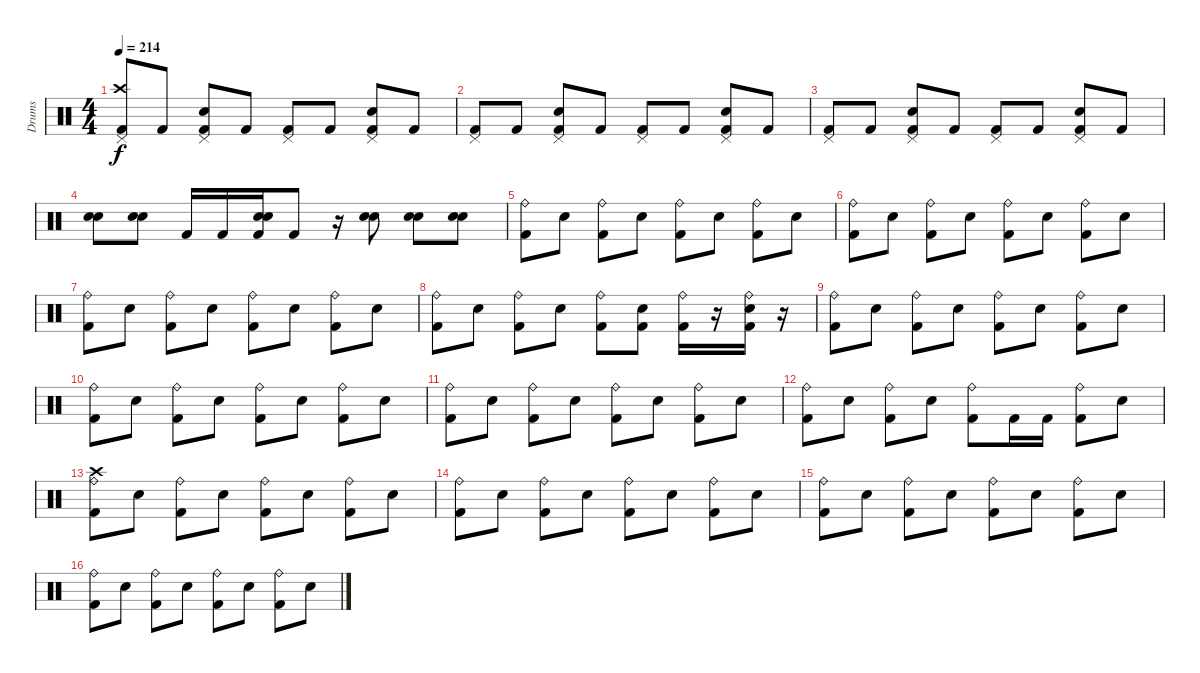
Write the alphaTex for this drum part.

\track ("Drums" "Drums") {instrument percussion}
\staff {score}
\articulation defaults
\ts (4 4)
\tempo 214
\clef neutral
\ks c
("Pedal Hi-Hat (hit)" "Crash high (hit)" "Kick (hit) 2").8{dy f} "Kick (hit) 2".8 ("Pedal Hi-Hat (hit)" "Electric Snare (hit)" "Kick (hit) 2").8 "Kick (hit) 2".8 ("Pedal Hi-Hat (hit)" "Kick (hit) 2").8 "Kick (hit) 2".8 ("Pedal Hi-Hat (hit)" "Electric Snare (hit)" "Kick (hit) 2").8 "Kick (hit) 2".8 |
("Pedal Hi-Hat (hit)" "Kick (hit) 2").8 "Kick (hit) 2".8 ("Pedal Hi-Hat (hit)" "Electric Snare (hit)" "Kick (hit) 2").8 "Kick (hit) 2".8 ("Pedal Hi-Hat (hit)" "Kick (hit) 2").8 "Kick (hit) 2".8 ("Pedal Hi-Hat (hit)" "Electric Snare (hit)" "Kick (hit) 2").8 "Kick (hit) 2".8 |
("Pedal Hi-Hat (hit)" "Kick (hit) 2").8 "Kick (hit) 2".8 ("Pedal Hi-Hat (hit)" "Electric Snare (hit)" "Kick (hit) 2").8 "Kick (hit) 2".8 ("Pedal Hi-Hat (hit)" "Kick (hit) 2").8 "Kick (hit) 2".8 ("Pedal Hi-Hat (hit)" "Electric Snare (hit)" "Kick (hit) 2").8 "Kick (hit) 2".8 |
("Electric Snare (hit)" "Electric Snare (hit)").8 ("Electric Snare (hit)" "Electric Snare (hit)").8 "Kick (hit) 2".16 "Kick (hit) 2".16 ("Electric Snare (hit)" "Electric Snare (hit)" "Kick (hit) 2").16 "Kick (hit) 2".8 r.16 ("Electric Snare (hit)" "Electric Snare (hit)").8 ("Electric Snare (hit)" "Electric Snare (hit)").8 ("Electric Snare (hit)" "Electric Snare (hit)").8 |
("Ride (bell)" "Kick (hit) 2").8 "Electric Snare (hit)".8 ("Ride (bell)" "Kick (hit) 2").8 "Electric Snare (hit)".8 ("Ride (bell)" "Kick (hit) 2").8 "Electric Snare (hit)".8 ("Ride (bell)" "Kick (hit) 2").8 "Electric Snare (hit)".8 |
("Ride (bell)" "Kick (hit) 2").8 "Electric Snare (hit)".8 ("Ride (bell)" "Kick (hit) 2").8 "Electric Snare (hit)".8 ("Ride (bell)" "Kick (hit) 2").8 "Electric Snare (hit)".8 ("Ride (bell)" "Kick (hit) 2").8 "Electric Snare (hit)".8 |
("Ride (bell)" "Kick (hit) 2").8 "Electric Snare (hit)".8 ("Ride (bell)" "Kick (hit) 2").8 "Electric Snare (hit)".8 ("Ride (bell)" "Kick (hit) 2").8 "Electric Snare (hit)".8 ("Ride (bell)" "Kick (hit) 2").8 "Electric Snare (hit)".8 |
("Ride (bell)" "Kick (hit) 2").8 "Electric Snare (hit)".8 ("Ride (bell)" "Kick (hit) 2").8 "Electric Snare (hit)".8 ("Ride (bell)" "Kick (hit) 2").8 ("Electric Snare (hit)" "Kick (hit) 2").8 ("Ride (bell)" "Kick (hit) 2").16 r.16 ("Ride (bell)" "Electric Snare (hit)" "Kick (hit) 2").16 r.16 |
("Ride (bell)" "Kick (hit) 2").8 "Electric Snare (hit)".8 ("Ride (bell)" "Kick (hit) 2").8 "Electric Snare (hit)".8 ("Ride (bell)" "Kick (hit) 2").8 "Electric Snare (hit)".8 ("Ride (bell)" "Kick (hit) 2").8 "Electric Snare (hit)".8 |
("Ride (bell)" "Kick (hit) 2").8 "Electric Snare (hit)".8 ("Ride (bell)" "Kick (hit) 2").8 "Electric Snare (hit)".8 ("Ride (bell)" "Kick (hit) 2").8 "Electric Snare (hit)".8 ("Ride (bell)" "Kick (hit) 2").8 "Electric Snare (hit)".8 |
("Ride (bell)" "Kick (hit) 2").8 "Electric Snare (hit)".8 ("Ride (bell)" "Kick (hit) 2").8 "Electric Snare (hit)".8 ("Ride (bell)" "Kick (hit) 2").8 "Electric Snare (hit)".8 ("Ride (bell)" "Kick (hit) 2").8 "Electric Snare (hit)".8 |
("Ride (bell)" "Kick (hit) 2").8 "Electric Snare (hit)".8 ("Ride (bell)" "Kick (hit) 2").8 "Electric Snare (hit)".8 ("Ride (bell)" "Kick (hit) 2").8 "Kick (hit) 2".16 "Kick (hit) 2".16 ("Ride (bell)" "Kick (hit) 2").8 "Electric Snare (hit)".8 |
("Ride (bell)" "Crash high (hit)" "Kick (hit) 2").8 "Electric Snare (hit)".8 ("Ride (bell)" "Kick (hit) 2").8 "Electric Snare (hit)".8 ("Ride (bell)" "Kick (hit) 2").8 "Electric Snare (hit)".8 ("Ride (bell)" "Kick (hit) 2").8 "Electric Snare (hit)".8 |
("Ride (bell)" "Kick (hit) 2").8 "Electric Snare (hit)".8 ("Ride (bell)" "Kick (hit) 2").8 "Electric Snare (hit)".8 ("Ride (bell)" "Kick (hit) 2").8 "Electric Snare (hit)".8 ("Ride (bell)" "Kick (hit) 2").8 "Electric Snare (hit)".8 |
("Ride (bell)" "Kick (hit) 2").8 "Electric Snare (hit)".8 ("Ride (bell)" "Kick (hit) 2").8 "Electric Snare (hit)".8 ("Ride (bell)" "Kick (hit) 2").8 "Electric Snare (hit)".8 ("Ride (bell)" "Kick (hit) 2").8 "Electric Snare (hit)".8 |
("Ride (bell)" "Kick (hit) 2").8 "Electric Snare (hit)".8 ("Ride (bell)" "Kick (hit) 2").8 "Electric Snare (hit)".8 ("Ride (bell)" "Kick (hit) 2").8 "Electric Snare (hit)".8 ("Ride (bell)" "Kick (hit) 2").8 "Electric Snare (hit)".8
